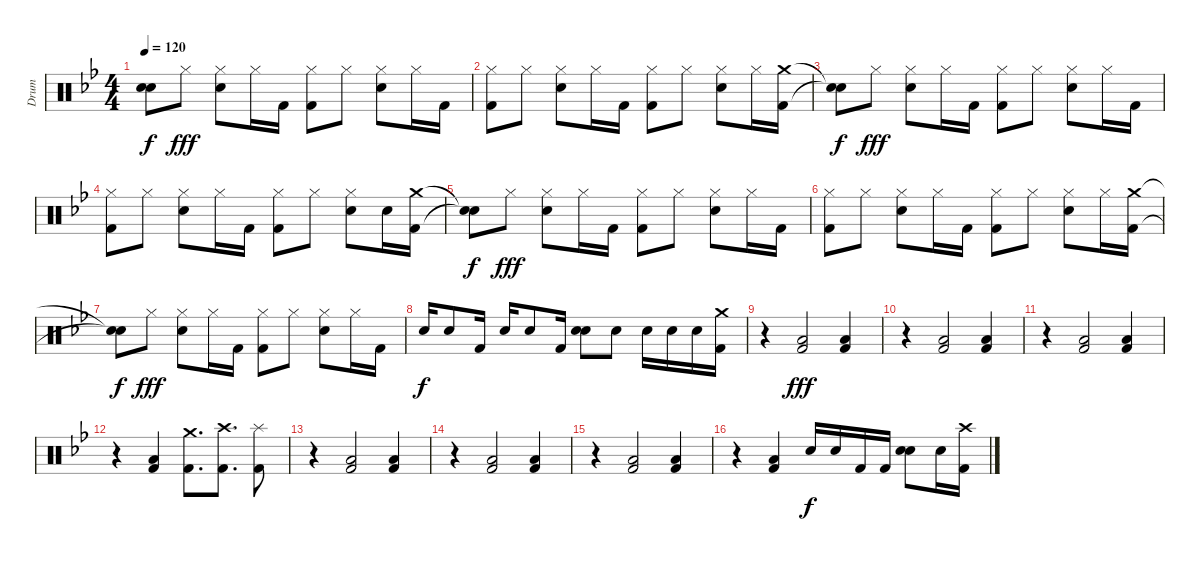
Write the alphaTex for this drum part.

\track ("Drum" "Drum") {instrument percussion}
\staff {score}
\articulation defaults
\ts (4 4)
\tempo 120
\clef neutral
\ks gminor
("Snare (hit)"{t} "Snare (hit)"{t}).8{dy f} "Hi-Hat (closed)".8{dy fff} ("Hi-Hat (closed)" "Electric Snare (hit)").8 "Hi-Hat (closed)".16 "Kick (hit) 2".16 ("Hi-Hat (closed)" "Kick (hit) 2").8 "Hi-Hat (closed)".8 ("Hi-Hat (closed)" "Electric Snare (hit)").8 "Hi-Hat (closed)".16 "Kick (hit) 2".16 |
("Hi-Hat (closed)" "Kick (hit) 2").8 "Hi-Hat (closed)".8 ("Hi-Hat (closed)" "Electric Snare (hit)").8 "Hi-Hat (closed)".16 "Kick (hit) 2".16 ("Hi-Hat (closed)" "Kick (hit) 2").8 "Hi-Hat (closed)".8 ("Hi-Hat (closed)" "Electric Snare (hit)").8 "Hi-Hat (closed)".16 ("Crash medium (hit)" "Kick (hit) 2").16 |
("Snare (hit)"{t} "Snare (hit)"{t}).8{dy f} "Hi-Hat (closed)".8{dy fff} ("Hi-Hat (closed)" "Electric Snare (hit)").8 "Hi-Hat (closed)".16 "Kick (hit) 2".16 ("Hi-Hat (closed)" "Kick (hit) 2").8 "Hi-Hat (closed)".8 ("Hi-Hat (closed)" "Electric Snare (hit)").8 "Hi-Hat (closed)".16 "Kick (hit) 2".16 |
("Hi-Hat (closed)" "Kick (hit) 2").8 "Hi-Hat (closed)".8 ("Hi-Hat (closed)" "Electric Snare (hit)").8 "Hi-Hat (closed)".16 "Kick (hit) 2".16 ("Hi-Hat (closed)" "Kick (hit) 2").8 "Hi-Hat (closed)".8 ("Hi-Hat (closed)" "Electric Snare (hit)").8 "Electric Snare (hit)".16 ("Crash medium (hit)" "Kick (hit) 2").16 |
("Snare (hit)"{t} "Snare (hit)"{t}).8{dy f} "Hi-Hat (closed)".8{dy fff} ("Hi-Hat (closed)" "Electric Snare (hit)").8 "Hi-Hat (closed)".16 "Kick (hit) 2".16 ("Hi-Hat (closed)" "Kick (hit) 2").8 "Hi-Hat (closed)".8 ("Hi-Hat (closed)" "Electric Snare (hit)").8 "Hi-Hat (closed)".16 "Kick (hit) 2".16 |
("Hi-Hat (closed)" "Kick (hit) 2").8 "Hi-Hat (closed)".8 ("Hi-Hat (closed)" "Electric Snare (hit)").8 "Hi-Hat (closed)".16 "Kick (hit) 2".16 ("Hi-Hat (closed)" "Kick (hit) 2").8 "Hi-Hat (closed)".8 ("Hi-Hat (closed)" "Electric Snare (hit)").8 "Hi-Hat (closed)".16 ("Crash medium (hit)" "Kick (hit) 2").16 |
("Snare (hit)"{t} "Snare (hit)"{t}).8{dy f} "Hi-Hat (closed)".8{dy fff} ("Hi-Hat (closed)" "Electric Snare (hit)").8 "Hi-Hat (closed)".16 "Kick (hit) 2".16 ("Hi-Hat (closed)" "Kick (hit) 2").8 "Hi-Hat (closed)".8 ("Hi-Hat (closed)" "Electric Snare (hit)").8 "Hi-Hat (closed)".16 "Kick (hit) 2".16 |
"Electric Snare (hit)".16{dy f} "Electric Snare (hit)".8 "Kick (hit) 2".16 "Electric Snare (hit)".16 "Electric Snare (hit)".8 "Kick (hit) 2".16 ("Electric Snare (hit)" "Electric Snare (hit)").8{bd 120} "Electric Snare (hit)".8 "Electric Snare (hit)".16 "Electric Snare (hit)".16 "Electric Snare (hit)".16 ("Crash medium (hit)" "Kick (hit) 2").16 |
r.4 ("Low Tom (hit)" "Kick (hit) 2").2{dy fff} ("Low Tom (hit)" "Kick (hit) 2").4 |
r.4 ("Low Tom (hit)" "Kick (hit) 2").2 ("Low Tom (hit)" "Kick (hit) 2").4 |
r.4 ("Low Tom (hit)" "Kick (hit) 2").2 ("Low Tom (hit)" "Kick (hit) 2").4 |
r.4 ("Low Tom (hit)" "Kick (hit) 2").4 ("Crash medium (hit)" "Kick (hit) 2").8{d} ("Crash high (hit)" "Kick (hit) 2").8{d} ("Splash (hit)" "Kick (hit) 2").8 |
r.4 ("Low Tom (hit)" "Kick (hit) 2").2 ("Low Tom (hit)" "Kick (hit) 2").4 |
r.4 ("Low Tom (hit)" "Kick (hit) 2").2 ("Low Tom (hit)" "Kick (hit) 2").4 |
r.4 ("Low Tom (hit)" "Kick (hit) 2").2 ("Low Tom (hit)" "Kick (hit) 2").4 |
r.4 ("Low Tom (hit)" "Kick (hit) 2").4 "Electric Snare (hit)".16{dy f} "Electric Snare (hit)".16 "Kick (hit) 2".16 "Kick (hit) 2".16 ("Electric Snare (hit)" "Electric Snare (hit)").8{bd 120} "Electric Snare (hit)".16 ("Crash high (hit)" "Kick (hit) 2").16
